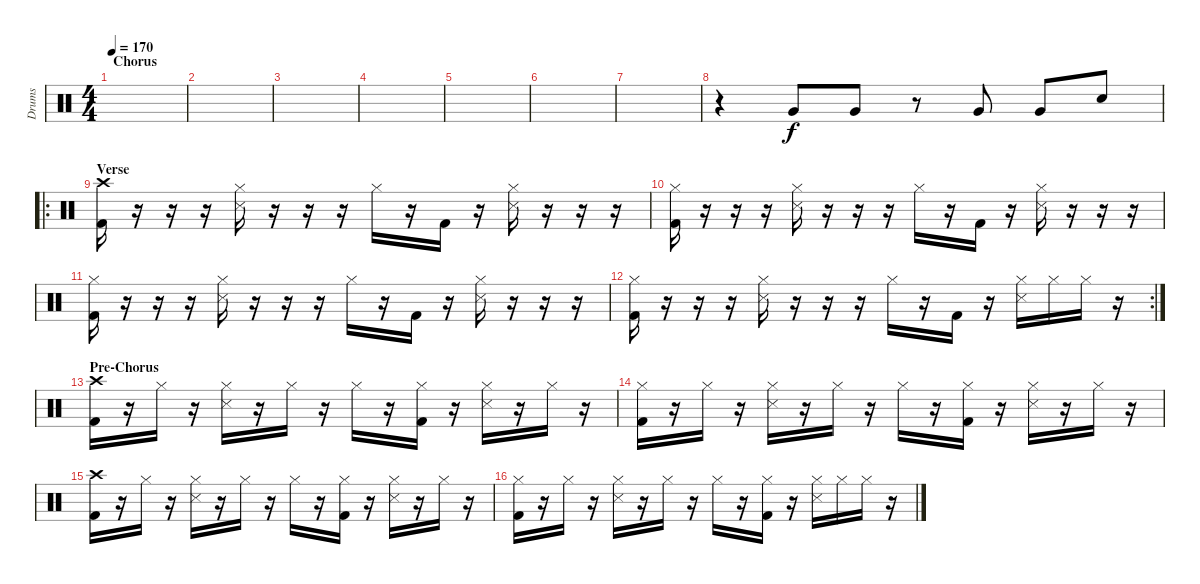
\track ("Drums" "Drums") {instrument percussion}
\staff {score}
\articulation defaults
\ts (4 4)
\section ("" "Chorus")
\tempo 170
\clef neutral
\ks c
|
|
|
|
|
|
|
r.4 "Very Low Tom (hit)".8 "Very Low Tom (hit)".8 r.8 "Very Low Tom (hit)".8 "Very Low Tom (hit)".8 "Snare (hit) 2".8 |
\ro
\section ("" "Verse")
("Kick (hit) 2" "Crash high (hit)").16 r.16 r.16 r.16 ("Hi-Hat (closed)" "Snare (side stick) 3").16 r.16 r.16 r.16 "Hi-Hat (closed)".16 r.16 "Kick (hit) 2".16 r.16 ("Hi-Hat (closed)" "Snare (side stick) 3").16 r.16 r.16 r.16 |
("Kick (hit) 2" "Hi-Hat (closed)").16 r.16 r.16 r.16 ("Hi-Hat (closed)" "Snare (side stick) 3").16 r.16 r.16 r.16 "Hi-Hat (closed)".16 r.16 "Kick (hit) 2".16 r.16 ("Hi-Hat (closed)" "Snare (side stick) 3").16 r.16 r.16 r.16 |
("Kick (hit) 2" "Hi-Hat (closed)").16 r.16 r.16 r.16 ("Hi-Hat (closed)" "Snare (side stick) 3").16 r.16 r.16 r.16 "Hi-Hat (closed)".16 r.16 "Kick (hit) 2".16 r.16 ("Hi-Hat (closed)" "Snare (side stick) 3").16 r.16 r.16 r.16 |
\rc 2
("Kick (hit) 2" "Hi-Hat (closed)").16 r.16 r.16 r.16 ("Hi-Hat (closed)" "Snare (side stick) 3").16 r.16 r.16 r.16 "Hi-Hat (closed)".16 r.16 "Kick (hit) 2".16 r.16 ("Hi-Hat (closed)" "Snare (side stick) 3").16 "Hi-Hat (closed)".16 "Hi-Hat (closed)".16 r.16 |
\section ("" "Pre-Chorus")
("Kick (hit) 2" "Crash high (hit)").16 r.16 "Hi-Hat (closed)".16 r.16 ("Hi-Hat (closed)" "Snare (side stick) 3").16 r.16 "Hi-Hat (closed)".16 r.16 "Hi-Hat (closed)".16 r.16 ("Hi-Hat (closed)" "Kick (hit) 2").16 r.16 ("Hi-Hat (closed)" "Snare (side stick) 3").16 r.16 "Hi-Hat (closed)".16 r.16 |
("Kick (hit) 2" "Hi-Hat (closed)").16 r.16 "Hi-Hat (closed)".16 r.16 ("Hi-Hat (closed)" "Snare (side stick) 3").16 r.16 "Hi-Hat (closed)".16 r.16 "Hi-Hat (closed)".16 r.16 ("Hi-Hat (closed)" "Kick (hit) 2").16 r.16 ("Hi-Hat (closed)" "Snare (side stick) 3").16 r.16 "Hi-Hat (closed)".16 r.16 |
("Kick (hit) 2" "Crash high (hit)").16 r.16 "Hi-Hat (closed)".16 r.16 ("Hi-Hat (closed)" "Snare (side stick) 3").16 r.16 "Hi-Hat (closed)".16 r.16 "Hi-Hat (closed)".16 r.16 ("Hi-Hat (closed)" "Kick (hit) 2").16 r.16 ("Hi-Hat (closed)" "Snare (side stick) 3").16 r.16 "Hi-Hat (closed)".16 r.16 |
("Kick (hit) 2" "Hi-Hat (closed)").16 r.16 "Hi-Hat (closed)".16 r.16 ("Hi-Hat (closed)" "Snare (side stick) 3").16 r.16 "Hi-Hat (closed)".16 r.16 "Hi-Hat (closed)".16 r.16 ("Hi-Hat (closed)" "Kick (hit) 2").16 r.16 ("Hi-Hat (closed)" "Snare (side stick) 3").16 "Hi-Hat (closed)".16 "Hi-Hat (closed)".16 r.16
